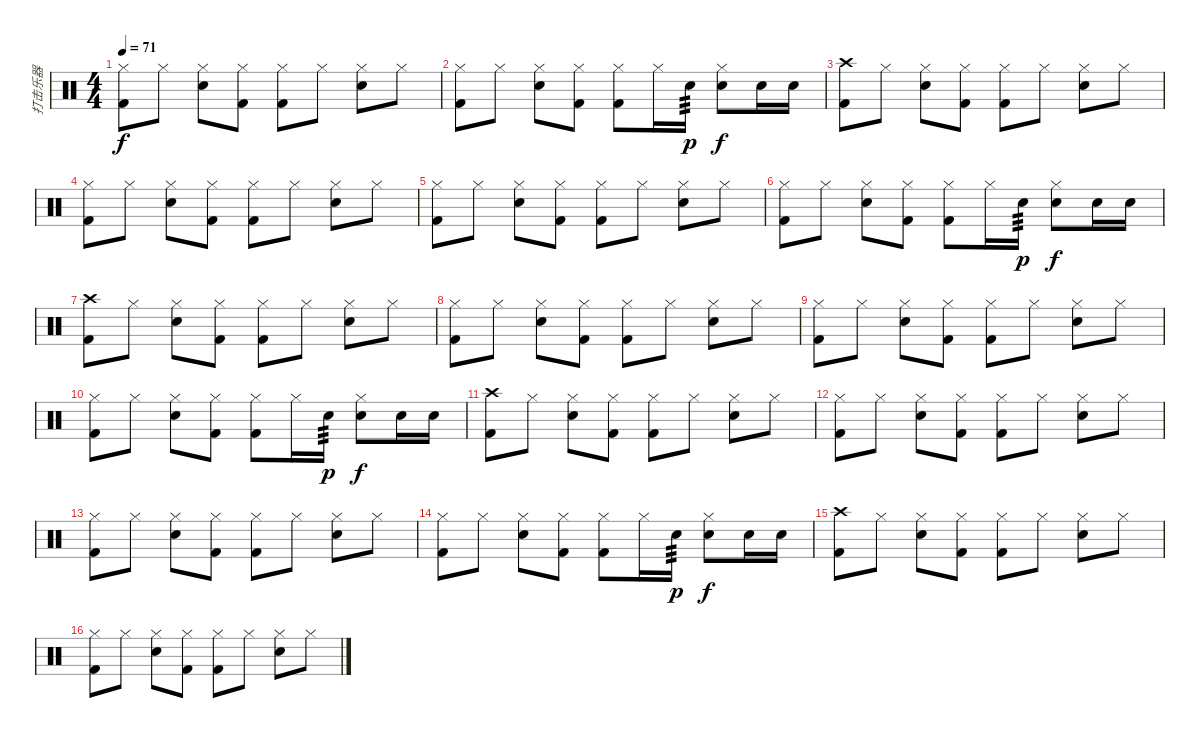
\track ("打击乐器" "打击乐器") {instrument percussion}
\staff {score}
\articulation defaults
\ts (4 4)
\tempo 71
\clef neutral
\ks c
("Hi-Hat (closed)" "Kick (hit) 2").8{dy f} "Hi-Hat (closed)".8 ("Hi-Hat (closed)" "Electric Snare (hit)").8 ("Hi-Hat (closed)" "Kick (hit) 2").8 ("Hi-Hat (closed)" "Kick (hit) 2").8 "Hi-Hat (closed)".8 ("Hi-Hat (closed)" "Electric Snare (hit)").8 "Hi-Hat (closed)".8 |
("Hi-Hat (closed)" "Kick (hit) 2").8 "Hi-Hat (closed)".8 ("Hi-Hat (closed)" "Electric Snare (hit)").8 ("Hi-Hat (closed)" "Kick (hit) 2").8 ("Hi-Hat (closed)" "Kick (hit) 2").8 "Hi-Hat (closed)".16 "Electric Snare (hit)".16{tp 3 dy p} ("Hi-Hat (closed)" "Electric Snare (hit)").8{dy f} "Electric Snare (hit)".16 "Electric Snare (hit)".16 |
("Crash high (hit)" "Kick (hit) 2").8 "Hi-Hat (closed)".8 ("Hi-Hat (closed)" "Electric Snare (hit)").8 ("Hi-Hat (closed)" "Kick (hit) 2").8 ("Hi-Hat (closed)" "Kick (hit) 2").8 "Hi-Hat (closed)".8 ("Hi-Hat (closed)" "Electric Snare (hit)").8 "Hi-Hat (closed)".8 |
("Hi-Hat (closed)" "Kick (hit) 2").8 "Hi-Hat (closed)".8 ("Hi-Hat (closed)" "Electric Snare (hit)").8 ("Hi-Hat (closed)" "Kick (hit) 2").8 ("Hi-Hat (closed)" "Kick (hit) 2").8 "Hi-Hat (closed)".8 ("Hi-Hat (closed)" "Electric Snare (hit)").8 "Hi-Hat (closed)".8 |
("Hi-Hat (closed)" "Kick (hit) 2").8 "Hi-Hat (closed)".8 ("Hi-Hat (closed)" "Electric Snare (hit)").8 ("Hi-Hat (closed)" "Kick (hit) 2").8 ("Hi-Hat (closed)" "Kick (hit) 2").8 "Hi-Hat (closed)".8 ("Hi-Hat (closed)" "Electric Snare (hit)").8 "Hi-Hat (closed)".8 |
("Hi-Hat (closed)" "Kick (hit) 2").8 "Hi-Hat (closed)".8 ("Hi-Hat (closed)" "Electric Snare (hit)").8 ("Hi-Hat (closed)" "Kick (hit) 2").8 ("Hi-Hat (closed)" "Kick (hit) 2").8 "Hi-Hat (closed)".16 "Electric Snare (hit)".16{tp 3 dy p} ("Hi-Hat (closed)" "Electric Snare (hit)").8{dy f} "Electric Snare (hit)".16 "Electric Snare (hit)".16 |
("Crash high (hit)" "Kick (hit) 2").8 "Hi-Hat (closed)".8 ("Hi-Hat (closed)" "Electric Snare (hit)").8 ("Hi-Hat (closed)" "Kick (hit) 2").8 ("Hi-Hat (closed)" "Kick (hit) 2").8 "Hi-Hat (closed)".8 ("Hi-Hat (closed)" "Electric Snare (hit)").8 "Hi-Hat (closed)".8 |
("Hi-Hat (closed)" "Kick (hit) 2").8 "Hi-Hat (closed)".8 ("Hi-Hat (closed)" "Electric Snare (hit)").8 ("Hi-Hat (closed)" "Kick (hit) 2").8 ("Hi-Hat (closed)" "Kick (hit) 2").8 "Hi-Hat (closed)".8 ("Hi-Hat (closed)" "Electric Snare (hit)").8 "Hi-Hat (closed)".8 |
("Hi-Hat (closed)" "Kick (hit) 2").8 "Hi-Hat (closed)".8 ("Hi-Hat (closed)" "Electric Snare (hit)").8 ("Hi-Hat (closed)" "Kick (hit) 2").8 ("Hi-Hat (closed)" "Kick (hit) 2").8 "Hi-Hat (closed)".8 ("Hi-Hat (closed)" "Electric Snare (hit)").8 "Hi-Hat (closed)".8 |
("Hi-Hat (closed)" "Kick (hit) 2").8 "Hi-Hat (closed)".8 ("Hi-Hat (closed)" "Electric Snare (hit)").8 ("Hi-Hat (closed)" "Kick (hit) 2").8 ("Hi-Hat (closed)" "Kick (hit) 2").8 "Hi-Hat (closed)".16 "Electric Snare (hit)".16{tp 3 dy p} ("Hi-Hat (closed)" "Electric Snare (hit)").8{dy f} "Electric Snare (hit)".16 "Electric Snare (hit)".16 |
("Crash high (hit)" "Kick (hit) 2").8 "Hi-Hat (closed)".8 ("Hi-Hat (closed)" "Electric Snare (hit)").8 ("Hi-Hat (closed)" "Kick (hit) 2").8 ("Hi-Hat (closed)" "Kick (hit) 2").8 "Hi-Hat (closed)".8 ("Hi-Hat (closed)" "Electric Snare (hit)").8 "Hi-Hat (closed)".8 |
("Hi-Hat (closed)" "Kick (hit) 2").8 "Hi-Hat (closed)".8 ("Hi-Hat (closed)" "Electric Snare (hit)").8 ("Hi-Hat (closed)" "Kick (hit) 2").8 ("Hi-Hat (closed)" "Kick (hit) 2").8 "Hi-Hat (closed)".8 ("Hi-Hat (closed)" "Electric Snare (hit)").8 "Hi-Hat (closed)".8 |
("Hi-Hat (closed)" "Kick (hit) 2").8 "Hi-Hat (closed)".8 ("Hi-Hat (closed)" "Electric Snare (hit)").8 ("Hi-Hat (closed)" "Kick (hit) 2").8 ("Hi-Hat (closed)" "Kick (hit) 2").8 "Hi-Hat (closed)".8 ("Hi-Hat (closed)" "Electric Snare (hit)").8 "Hi-Hat (closed)".8 |
("Hi-Hat (closed)" "Kick (hit) 2").8 "Hi-Hat (closed)".8 ("Hi-Hat (closed)" "Electric Snare (hit)").8 ("Hi-Hat (closed)" "Kick (hit) 2").8 ("Hi-Hat (closed)" "Kick (hit) 2").8 "Hi-Hat (closed)".16 "Electric Snare (hit)".16{tp 3 dy p} ("Hi-Hat (closed)" "Electric Snare (hit)").8{dy f} "Electric Snare (hit)".16 "Electric Snare (hit)".16 |
("Crash high (hit)" "Kick (hit) 2").8 "Hi-Hat (closed)".8 ("Hi-Hat (closed)" "Electric Snare (hit)").8 ("Hi-Hat (closed)" "Kick (hit) 2").8 ("Hi-Hat (closed)" "Kick (hit) 2").8 "Hi-Hat (closed)".8 ("Hi-Hat (closed)" "Electric Snare (hit)").8 "Hi-Hat (closed)".8 |
("Hi-Hat (closed)" "Kick (hit) 2").8 "Hi-Hat (closed)".8 ("Hi-Hat (closed)" "Electric Snare (hit)").8 ("Hi-Hat (closed)" "Kick (hit) 2").8 ("Hi-Hat (closed)" "Kick (hit) 2").8 "Hi-Hat (closed)".8 ("Hi-Hat (closed)" "Electric Snare (hit)").8 "Hi-Hat (closed)".8
